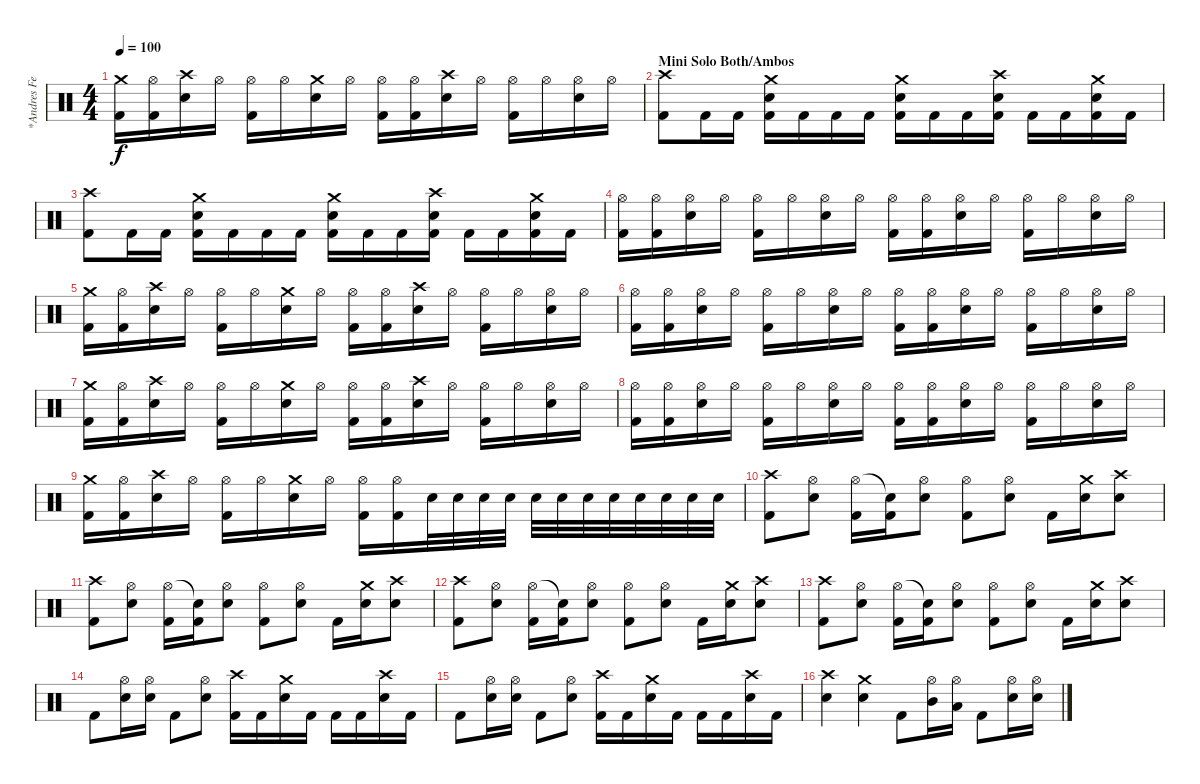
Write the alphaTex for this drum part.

\track ("*Andres Felipe" "*Andres Fe") {instrument percussion}
\staff {score}
\articulation defaults
\ts (4 4)
\tempo 100
\clef neutral
\ks c
("Crash medium (hit)" "Kick (hit) 2").16{dy f} ("Hi-Hat (open)" "Kick (hit) 2").16 ("Crash high (hit)" "Electric Snare (hit)").16 "Hi-Hat (open)".16 ("Hi-Hat (open)" "Kick (hit) 2").16 "Hi-Hat (open)".16 ("Crash medium (hit)" "Electric Snare (hit)").16 "Hi-Hat (open)".16 ("Hi-Hat (open)" "Kick (hit) 2").16 ("Hi-Hat (open)" "Kick (hit) 2").16 ("Crash high (hit)" "Electric Snare (hit)").16 "Hi-Hat (open)".16 ("Hi-Hat (open)" "Kick (hit) 2").16 "Hi-Hat (open)".16 ("Hi-Hat (open)" "Electric Snare (hit)").16 "Hi-Hat (open)".16 |
\section ("" "Mini Solo Both/Ambos")
("Crash high (hit)" "Kick (hit) 2").8 "Kick (hit) 2".16 "Kick (hit) 2".16 ("Crash medium (hit)" "Electric Snare (hit)" "Kick (hit) 2").16 "Kick (hit) 2".16 "Kick (hit) 2".16 "Kick (hit) 2".16 ("Crash medium (hit)" "Electric Snare (hit)" "Kick (hit) 2").16 "Kick (hit) 2".16 "Kick (hit) 2".16 ("Crash high (hit)" "Electric Snare (hit)" "Kick (hit) 2").16 "Kick (hit) 2".16 "Kick (hit) 2".16 ("Crash medium (hit)" "Electric Snare (hit)" "Kick (hit) 2").16 "Kick (hit) 2".16 |
("Crash high (hit)" "Kick (hit) 2").8 "Kick (hit) 2".16 "Kick (hit) 2".16 ("Crash medium (hit)" "Electric Snare (hit)" "Kick (hit) 2").16 "Kick (hit) 2".16 "Kick (hit) 2".16 "Kick (hit) 2".16 ("Crash medium (hit)" "Electric Snare (hit)" "Kick (hit) 2").16 "Kick (hit) 2".16 "Kick (hit) 2".16 ("Crash high (hit)" "Electric Snare (hit)" "Kick (hit) 2").16 "Kick (hit) 2".16 "Kick (hit) 2".16 ("Crash medium (hit)" "Electric Snare (hit)" "Kick (hit) 2").16 "Kick (hit) 2".16 |
("Hi-Hat (open)" "Kick (hit) 2").16 ("Hi-Hat (open)" "Kick (hit) 2").16 ("Hi-Hat (open)" "Electric Snare (hit)").16 "Hi-Hat (open)".16 ("Hi-Hat (open)" "Kick (hit) 2").16 "Hi-Hat (open)".16 ("Hi-Hat (open)" "Electric Snare (hit)").16 "Hi-Hat (open)".16 ("Hi-Hat (open)" "Kick (hit) 2").16 ("Hi-Hat (open)" "Kick (hit) 2").16 ("Hi-Hat (open)" "Electric Snare (hit)").16 "Hi-Hat (open)".16 ("Hi-Hat (open)" "Kick (hit) 2").16 "Hi-Hat (open)".16 ("Hi-Hat (open)" "Electric Snare (hit)").16 "Hi-Hat (open)".16 |
("Crash medium (hit)" "Kick (hit) 2").16 ("Hi-Hat (open)" "Kick (hit) 2").16 ("Crash high (hit)" "Electric Snare (hit)").16 "Hi-Hat (open)".16 ("Hi-Hat (open)" "Kick (hit) 2").16 "Hi-Hat (open)".16 ("Crash medium (hit)" "Electric Snare (hit)").16 "Hi-Hat (open)".16 ("Hi-Hat (open)" "Kick (hit) 2").16 ("Hi-Hat (open)" "Kick (hit) 2").16 ("Crash high (hit)" "Electric Snare (hit)").16 "Hi-Hat (open)".16 ("Hi-Hat (open)" "Kick (hit) 2").16 "Hi-Hat (open)".16 ("Hi-Hat (open)" "Electric Snare (hit)").16 "Hi-Hat (open)".16 |
("Hi-Hat (open)" "Kick (hit) 2").16 ("Hi-Hat (open)" "Kick (hit) 2").16 ("Hi-Hat (open)" "Electric Snare (hit)").16 "Hi-Hat (open)".16 ("Hi-Hat (open)" "Kick (hit) 2").16 "Hi-Hat (open)".16 ("Hi-Hat (open)" "Electric Snare (hit)").16 "Hi-Hat (open)".16 ("Hi-Hat (open)" "Kick (hit) 2").16 ("Hi-Hat (open)" "Kick (hit) 2").16 ("Hi-Hat (open)" "Electric Snare (hit)").16 "Hi-Hat (open)".16 ("Hi-Hat (open)" "Kick (hit) 2").16 "Hi-Hat (open)".16 ("Hi-Hat (open)" "Electric Snare (hit)").16 "Hi-Hat (open)".16 |
("Crash medium (hit)" "Kick (hit) 2").16 ("Hi-Hat (open)" "Kick (hit) 2").16 ("Crash high (hit)" "Electric Snare (hit)").16 "Hi-Hat (open)".16 ("Hi-Hat (open)" "Kick (hit) 2").16 "Hi-Hat (open)".16 ("Crash medium (hit)" "Electric Snare (hit)").16 "Hi-Hat (open)".16 ("Hi-Hat (open)" "Kick (hit) 2").16 ("Hi-Hat (open)" "Kick (hit) 2").16 ("Crash high (hit)" "Electric Snare (hit)").16 "Hi-Hat (open)".16 ("Hi-Hat (open)" "Kick (hit) 2").16 "Hi-Hat (open)".16 ("Hi-Hat (open)" "Electric Snare (hit)").16 "Hi-Hat (open)".16 |
("Hi-Hat (open)" "Kick (hit) 2").16 ("Hi-Hat (open)" "Kick (hit) 2").16 ("Hi-Hat (open)" "Electric Snare (hit)").16 "Hi-Hat (open)".16 ("Hi-Hat (open)" "Kick (hit) 2").16 "Hi-Hat (open)".16 ("Hi-Hat (open)" "Electric Snare (hit)").16 "Hi-Hat (open)".16 ("Hi-Hat (open)" "Kick (hit) 2").16 ("Hi-Hat (open)" "Kick (hit) 2").16 ("Hi-Hat (open)" "Electric Snare (hit)").16 "Hi-Hat (open)".16 ("Hi-Hat (open)" "Kick (hit) 2").16 "Hi-Hat (open)".16 ("Hi-Hat (open)" "Electric Snare (hit)").16 "Hi-Hat (open)".16 |
("Crash medium (hit)" "Kick (hit) 2").16 ("Hi-Hat (open)" "Kick (hit) 2").16 ("Crash high (hit)" "Electric Snare (hit)").16 "Hi-Hat (open)".16 ("Hi-Hat (open)" "Kick (hit) 2").16 "Hi-Hat (open)".16 ("Crash medium (hit)" "Electric Snare (hit)").16 "Hi-Hat (open)".16 ("Hi-Hat (open)" "Kick (hit) 2").16 ("Hi-Hat (open)" "Kick (hit) 2").16 "Electric Snare (hit)".32 "Electric Snare (hit)".32 "Electric Snare (hit)".32 "Electric Snare (hit)".32 "Electric Snare (hit)".32 "Electric Snare (hit)".32 "Electric Snare (hit)".32 "Electric Snare (hit)".32 "Electric Snare (hit)".32 "Electric Snare (hit)".32 "Electric Snare (hit)".32 "Electric Snare (hit)".32 |
("Crash high (hit)" "Kick (hit) 2").8 ("Hi-Hat (open)" "Electric Snare (hit)").8 ("Hi-Hat (open)" "Kick (hit) 2").16 ("Snare (hit)"{t} "Kick (hit) 2").16 ("Hi-Hat (open)" "Electric Snare (hit)").8 ("Hi-Hat (open)" "Kick (hit) 2").8 ("Hi-Hat (open)" "Electric Snare (hit)").8 "Kick (hit) 2".16 ("Crash medium (hit)" "Electric Snare (hit)").16 ("Crash high (hit)" "Electric Snare (hit)").8 |
("Crash high (hit)" "Kick (hit) 2").8 ("Hi-Hat (open)" "Electric Snare (hit)").8 ("Hi-Hat (open)" "Kick (hit) 2").16 ("Snare (hit)"{t} "Kick (hit) 2").16 ("Hi-Hat (open)" "Electric Snare (hit)").8 ("Hi-Hat (open)" "Kick (hit) 2").8 ("Hi-Hat (open)" "Electric Snare (hit)").8 "Kick (hit) 2".16 ("Crash medium (hit)" "Electric Snare (hit)").16 ("Crash high (hit)" "Electric Snare (hit)").8 |
("Crash high (hit)" "Kick (hit) 2").8 ("Hi-Hat (open)" "Electric Snare (hit)").8 ("Hi-Hat (open)" "Kick (hit) 2").16 ("Snare (hit)"{t} "Kick (hit) 2").16 ("Hi-Hat (open)" "Electric Snare (hit)").8 ("Hi-Hat (open)" "Kick (hit) 2").8 ("Hi-Hat (open)" "Electric Snare (hit)").8 "Kick (hit) 2".16 ("Crash medium (hit)" "Electric Snare (hit)").16 ("Crash high (hit)" "Electric Snare (hit)").8 |
("Crash high (hit)" "Kick (hit) 2").8 ("Hi-Hat (open)" "Electric Snare (hit)").8 ("Hi-Hat (open)" "Kick (hit) 2").16 ("Snare (hit)"{t} "Kick (hit) 2").16 ("Hi-Hat (open)" "Electric Snare (hit)").8 ("Hi-Hat (open)" "Kick (hit) 2").8 ("Hi-Hat (open)" "Electric Snare (hit)").8 "Kick (hit) 2".16 ("Crash medium (hit)" "Electric Snare (hit)").16 ("Crash high (hit)" "Electric Snare (hit)").8 |
"Kick (hit) 2".8 ("Hi-Hat (open)" "Electric Snare (hit)").16 ("Hi-Hat (open)" "Electric Snare (hit)").16 "Kick (hit) 2".8 ("Hi-Hat (open)" "Electric Snare (hit)").8 ("Crash high (hit)" "Kick (hit) 2").16 "Kick (hit) 2".16 ("Crash medium (hit)" "Electric Snare (hit)").16 "Kick (hit) 2".16 "Kick (hit) 2".16 "Kick (hit) 2".16 ("Crash high (hit)" "Electric Snare (hit)").16 "Kick (hit) 2".16 |
"Kick (hit) 2".8 ("Hi-Hat (open)" "Electric Snare (hit)").16 ("Hi-Hat (open)" "Electric Snare (hit)").16 "Kick (hit) 2".8 ("Hi-Hat (open)" "Electric Snare (hit)").8 ("Crash high (hit)" "Kick (hit) 2").16 "Kick (hit) 2".16 ("Crash medium (hit)" "Electric Snare (hit)").16 "Kick (hit) 2".16 "Kick (hit) 2".16 "Kick (hit) 2".16 ("Crash high (hit)" "Electric Snare (hit)").16 "Kick (hit) 2".16 |
("Crash high (hit)" "Electric Snare (hit)").4 ("Crash medium (hit)" "Electric Snare (hit)").4 "Kick (hit) 2".8 ("Hi-Hat (open)" "Mid Tom (hit)").16 ("Hi-Hat (open)" "Low Tom (hit)").16 "Kick (hit) 2".8 ("Hi-Hat (open)" "Electric Snare (hit)").16 ("Hi-Hat (open)" "Electric Snare (hit)").16
